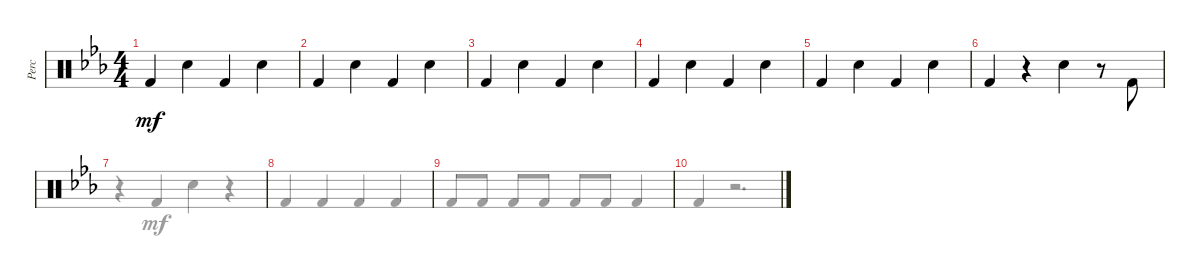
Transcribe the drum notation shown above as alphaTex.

\defaultSystemsLayout 4
\bracketExtendMode groupsimilarinstruments
\otherSystemsTrackNameOrientation horizontal
\track ("Percussions" "Perc") {instrument percussion}
\staff {score}
\articulation defaults
\voice
\ts (4 4)
\tempo (140 hide)
\clef neutral
\ks cminor "Kick (hit) 2"{acc forcenatural}.4{dy mf beam Up} "Snare (hit) 2"{acc forcenatural}.4{beam Down} "Kick (hit) 2"{acc forcenatural}.4{beam Up} "Snare (hit) 2"{acc forcenatural}.4{beam Down}
|
"Kick (hit) 2"{acc forcenatural}.4{beam Up} "Snare (hit) 2"{acc forcenatural}.4{beam Down} "Kick (hit) 2"{acc forcenatural}.4{beam Up} "Snare (hit) 2"{acc forcenatural}.4{beam Down} |
"Kick (hit) 2"{acc forcenatural}.4{beam Up} "Snare (hit) 2"{acc forcenatural}.4{beam Down} "Kick (hit) 2"{acc forcenatural}.4{beam Up} "Snare (hit) 2"{acc forcenatural}.4{beam Down} |
"Kick (hit) 2"{acc forcenatural}.4{beam Up} "Snare (hit) 2"{acc forcenatural}.4{beam Down} "Kick (hit) 2"{acc forcenatural}.4{beam Up} "Snare (hit) 2"{acc forcenatural}.4{beam Down} |
"Kick (hit) 2"{acc forcenatural}.4{beam Up} "Snare (hit) 2"{acc forcenatural}.4{beam Down} "Kick (hit) 2"{acc forcenatural}.4{beam Up} "Snare (hit) 2"{acc forcenatural}.4{beam Down} |
"Kick (hit) 2"{acc forcenatural}.4{beam Up} r.4{beam Up} "Snare (hit) 2"{acc forcenatural}.4{beam Down} r.8{beam Down} "Kick (hit) 2"{acc forcenatural}.8{beam Up} |
|
|
|
\voice
\clef neutral
\ottava regular
\simile none
\ks cminor
|
|
|
|
|
|
r.4{beam Down} "Kick (hit) 2"{acc forcenatural}.4{beam Up} "Snare (hit) 2"{acc forcenatural}.4{beam Down} r.4{beam Down} |
"Kick (hit) 2"{acc forcenatural}.4{beam Up} "Kick (hit) 2"{acc forcenatural}.4{beam Up} "Kick (hit) 2"{acc forcenatural}.4{beam Up} "Kick (hit) 2"{acc forcenatural}.4{beam Up} |
"Kick (hit) 2"{acc forcenatural}.8{beam Up} "Kick (hit) 2"{acc forcenatural}.8{beam Up} "Kick (hit) 2"{acc forcenatural}.8{beam Up} "Kick (hit) 2"{acc forcenatural}.8{beam Up} "Kick (hit) 2"{acc forcenatural}.8{beam Up} "Kick (hit) 2"{acc forcenatural}.8{beam Up} "Kick (hit) 2"{acc forcenatural}.4{beam Up} |
"Kick (hit) 2"{acc forcenatural}.4{beam Up} r.2{d beam Up}
